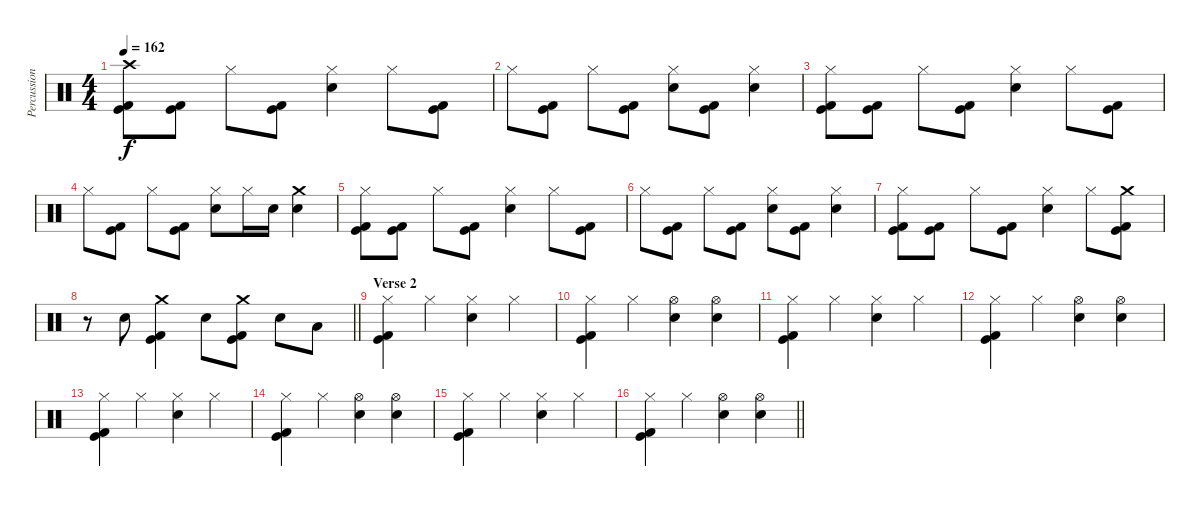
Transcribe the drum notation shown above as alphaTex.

\track ("Percussion" "Percussion") {instrument percussion}
\staff {score}
\articulation defaults
\ts (4 4)
\section ("" "")
\tempo 162
\clef neutral
\ks c
("Crash high (hit)" "Kick (hit)" "Kick (hit) 2").8{dy f} ("Kick (hit)" "Kick (hit) 2").8 "Hi-Hat (closed)".8 ("Kick (hit)" "Kick (hit) 2").8 ("Hi-Hat (closed)" "Electric Snare (hit)").4 "Hi-Hat (closed)".8 ("Kick (hit)" "Kick (hit) 2").8 |
"Hi-Hat (closed)".8 ("Kick (hit)" "Kick (hit) 2").8 "Hi-Hat (closed)".8 ("Kick (hit)" "Kick (hit) 2").8 ("Hi-Hat (closed)" "Electric Snare (hit)").8 ("Kick (hit)" "Kick (hit) 2").8 ("Hi-Hat (closed)" "Electric Snare (hit)").4 |
("Hi-Hat (closed)" "Kick (hit)" "Kick (hit) 2").8 ("Kick (hit)" "Kick (hit) 2").8 "Hi-Hat (closed)".8 ("Kick (hit)" "Kick (hit) 2").8 ("Hi-Hat (closed)" "Electric Snare (hit)").4 "Hi-Hat (closed)".8 ("Kick (hit)" "Kick (hit) 2").8 |
"Hi-Hat (closed)".8 ("Kick (hit)" "Kick (hit) 2").8 "Hi-Hat (closed)".8 ("Kick (hit)" "Kick (hit) 2").8 ("Hi-Hat (closed)" "Electric Snare (hit)").8 "Hi-Hat (closed)".16 "Electric Snare (hit)".16 ("Crash medium (hit)" "Electric Snare (hit)").4 |
("Hi-Hat (closed)" "Kick (hit)" "Kick (hit) 2").8 ("Kick (hit)" "Kick (hit) 2").8 "Hi-Hat (closed)".8 ("Kick (hit)" "Kick (hit) 2").8 ("Hi-Hat (closed)" "Electric Snare (hit)").4 "Hi-Hat (closed)".8 ("Kick (hit)" "Kick (hit) 2").8 |
"Hi-Hat (closed)".8 ("Kick (hit)" "Kick (hit) 2").8 "Hi-Hat (closed)".8 ("Kick (hit)" "Kick (hit) 2").8 ("Hi-Hat (closed)" "Electric Snare (hit)").8 ("Kick (hit)" "Kick (hit) 2").8 ("Hi-Hat (closed)" "Electric Snare (hit)").4 |
("Hi-Hat (closed)" "Kick (hit)" "Kick (hit) 2").8 ("Kick (hit)" "Kick (hit) 2").8 "Hi-Hat (closed)".8 ("Kick (hit)" "Kick (hit) 2").8 ("Hi-Hat (closed)" "Electric Snare (hit)").4 "Hi-Hat (closed)".8 ("Crash medium (hit)" "Kick (hit)" "Kick (hit) 2").8 |
\barLineRight lightlight
r.8 "Electric Snare (hit)".8 ("Crash medium (hit)" "Kick (hit)" "Kick (hit) 2").4 "Electric Snare (hit)".8 ("Crash medium (hit)" "Kick (hit)" "Kick (hit) 2").8 "Electric Snare (hit)".8 "Low Tom (hit)".8 |
\section ("" "Verse 2")
("Hi-Hat (closed)" "Kick (hit)" "Kick (hit) 2").4 "Hi-Hat (closed)".4 ("Hi-Hat (closed)" "Electric Snare (hit)").4 "Hi-Hat (closed)".4 |
("Hi-Hat (closed)" "Kick (hit)" "Kick (hit) 2").4 "Hi-Hat (closed)".4 ("Hi-Hat (open)" "Electric Snare (hit)").4 ("Hi-Hat (open)" "Electric Snare (hit)").4 |
("Hi-Hat (closed)" "Kick (hit)" "Kick (hit) 2").4 "Hi-Hat (closed)".4 ("Hi-Hat (closed)" "Electric Snare (hit)").4 "Hi-Hat (closed)".4 |
("Hi-Hat (closed)" "Kick (hit)" "Kick (hit) 2").4 "Hi-Hat (closed)".4 ("Hi-Hat (open)" "Electric Snare (hit)").4 ("Hi-Hat (open)" "Electric Snare (hit)").4 |
("Hi-Hat (closed)" "Kick (hit)" "Kick (hit) 2").4 "Hi-Hat (closed)".4 ("Hi-Hat (closed)" "Electric Snare (hit)").4 "Hi-Hat (closed)".4 |
("Hi-Hat (closed)" "Kick (hit)" "Kick (hit) 2").4 "Hi-Hat (closed)".4 ("Hi-Hat (open)" "Electric Snare (hit)").4 ("Hi-Hat (open)" "Electric Snare (hit)").4 |
("Hi-Hat (closed)" "Kick (hit)" "Kick (hit) 2").4 "Hi-Hat (closed)".4 ("Hi-Hat (closed)" "Electric Snare (hit)").4 "Hi-Hat (closed)".4 |
\barLineRight lightlight
("Hi-Hat (closed)" "Kick (hit)" "Kick (hit) 2").4 "Hi-Hat (closed)".4 ("Hi-Hat (open)" "Electric Snare (hit)").4 ("Hi-Hat (open)" "Electric Snare (hit)").4
